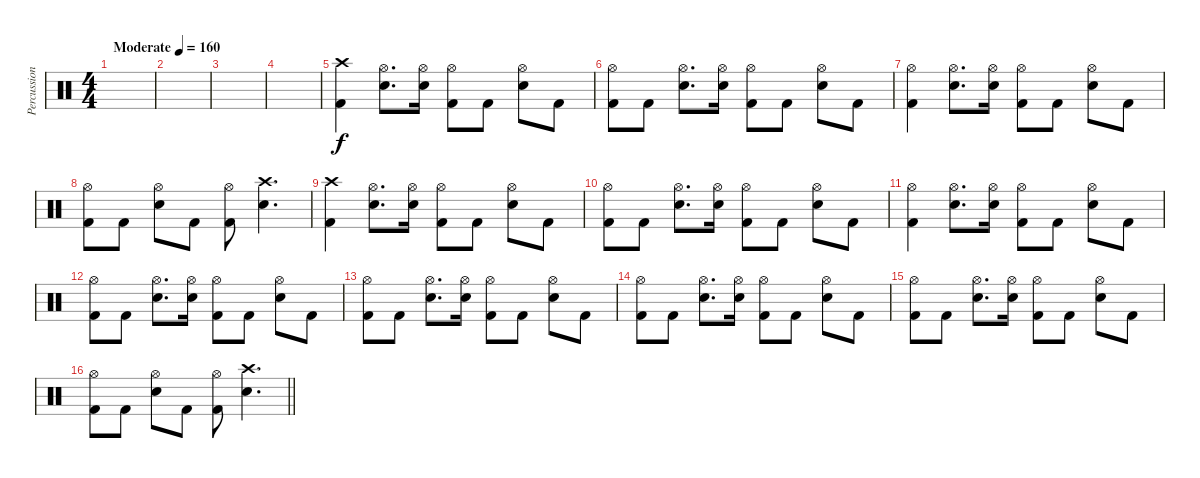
\track ("Percussion" "Percussion") {instrument percussion}
\staff {score}
\articulation defaults
\ts (4 4)
\tempo (160 "Moderate")
\clef neutral
\ks c
|
|
|
|
("Crash high (hit)" "Kick (hit) 2").4 ("Hi-Hat (open)" "Electric Snare (hit)").8{d} ("Hi-Hat (open)" "Electric Snare (hit)").16 ("Hi-Hat (open)" "Kick (hit) 2").8 "Kick (hit) 2".8 ("Hi-Hat (open)" "Electric Snare (hit)").8 "Kick (hit) 2".8 |
("Hi-Hat (open)" "Kick (hit) 2").8 "Kick (hit) 2".8 ("Hi-Hat (open)" "Electric Snare (hit)").8{d} ("Hi-Hat (open)" "Electric Snare (hit)").16 ("Hi-Hat (open)" "Kick (hit) 2").8 "Kick (hit) 2".8 ("Hi-Hat (open)" "Electric Snare (hit)").8 "Kick (hit) 2".8 |
("Hi-Hat (open)" "Kick (hit) 2").4 ("Hi-Hat (open)" "Electric Snare (hit)").8{d} ("Hi-Hat (open)" "Electric Snare (hit)").16 ("Hi-Hat (open)" "Kick (hit) 2").8 "Kick (hit) 2".8 ("Hi-Hat (open)" "Electric Snare (hit)").8 "Kick (hit) 2".8 |
("Hi-Hat (open)" "Kick (hit) 2").8 "Kick (hit) 2".8 ("Hi-Hat (open)" "Electric Snare (hit)").8 "Kick (hit) 2".8 ("Hi-Hat (open)" "Kick (hit) 2").8 ("Crash high (hit)" "Electric Snare (hit)").4{d} |
("Crash high (hit)" "Kick (hit) 2").4 ("Hi-Hat (open)" "Electric Snare (hit)").8{d} ("Hi-Hat (open)" "Electric Snare (hit)").16 ("Hi-Hat (open)" "Kick (hit) 2").8 "Kick (hit) 2".8 ("Hi-Hat (open)" "Electric Snare (hit)").8 "Kick (hit) 2".8 |
("Hi-Hat (open)" "Kick (hit) 2").8 "Kick (hit) 2".8 ("Hi-Hat (open)" "Electric Snare (hit)").8{d} ("Hi-Hat (open)" "Electric Snare (hit)").16 ("Hi-Hat (open)" "Kick (hit) 2").8 "Kick (hit) 2".8 ("Hi-Hat (open)" "Electric Snare (hit)").8 "Kick (hit) 2".8 |
("Hi-Hat (open)" "Kick (hit) 2").4 ("Hi-Hat (open)" "Electric Snare (hit)").8{d} ("Hi-Hat (open)" "Electric Snare (hit)").16 ("Hi-Hat (open)" "Kick (hit) 2").8 "Kick (hit) 2".8 ("Hi-Hat (open)" "Electric Snare (hit)").8 "Kick (hit) 2".8 |
("Hi-Hat (open)" "Kick (hit) 2").8 "Kick (hit) 2".8 ("Hi-Hat (open)" "Electric Snare (hit)").8{d} ("Hi-Hat (open)" "Electric Snare (hit)").16 ("Hi-Hat (open)" "Kick (hit) 2").8 "Kick (hit) 2".8 ("Hi-Hat (open)" "Electric Snare (hit)").8 "Kick (hit) 2".8 |
("Hi-Hat (open)" "Kick (hit) 2").8 "Kick (hit) 2".8 ("Hi-Hat (open)" "Electric Snare (hit)").8{d} ("Hi-Hat (open)" "Electric Snare (hit)").16 ("Hi-Hat (open)" "Kick (hit) 2").8 "Kick (hit) 2".8 ("Hi-Hat (open)" "Electric Snare (hit)").8 "Kick (hit) 2".8 |
("Hi-Hat (open)" "Kick (hit) 2").8 "Kick (hit) 2".8 ("Hi-Hat (open)" "Electric Snare (hit)").8{d} ("Hi-Hat (open)" "Electric Snare (hit)").16 ("Hi-Hat (open)" "Kick (hit) 2").8 "Kick (hit) 2".8 ("Hi-Hat (open)" "Electric Snare (hit)").8 "Kick (hit) 2".8 |
("Hi-Hat (open)" "Kick (hit) 2").8 "Kick (hit) 2".8 ("Hi-Hat (open)" "Electric Snare (hit)").8{d} ("Hi-Hat (open)" "Electric Snare (hit)").16 ("Hi-Hat (open)" "Kick (hit) 2").8 "Kick (hit) 2".8 ("Hi-Hat (open)" "Electric Snare (hit)").8 "Kick (hit) 2".8 |
\barLineRight lightlight
("Hi-Hat (open)" "Kick (hit) 2").8 "Kick (hit) 2".8 ("Hi-Hat (open)" "Electric Snare (hit)").8 "Kick (hit) 2".8 ("Hi-Hat (open)" "Kick (hit) 2").8 ("Crash high (hit)" "Electric Snare (hit)").4{d}
